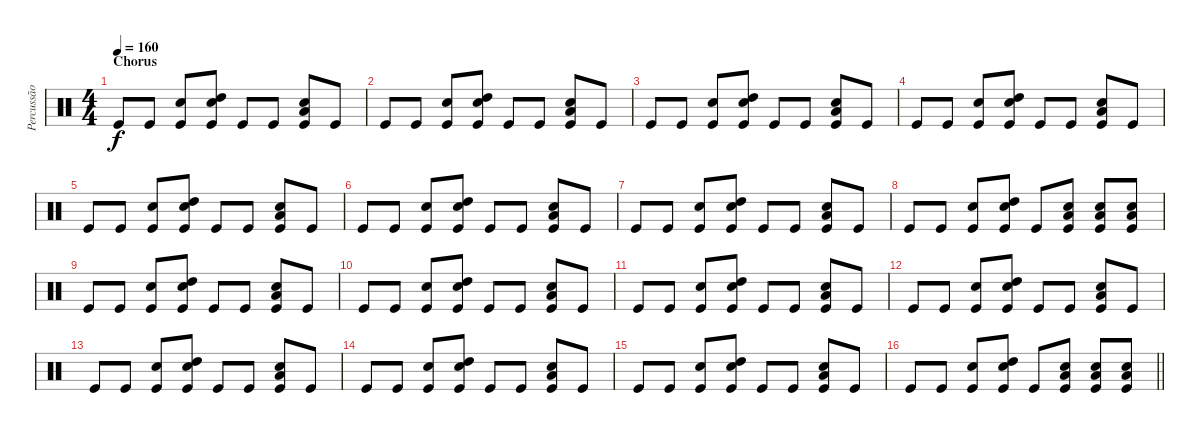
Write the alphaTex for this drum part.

\track ("Percussão" "Percussão") {instrument percussion}
\staff {score}
\articulation defaults
\ts (4 4)
\section ("" "Chorus")
\tempo 160
\clef neutral
\ks c "Kick (hit)".8{dy f} "Kick (hit)".8
("Snare (hit) 2" "Kick (hit)").8 ("Snare (hit) 2" "High Tom (hit)" "Kick (hit)").8 "Kick (hit)".8 "Kick (hit)".8 ("Snare (hit) 2" "Low Tom (hit)" "Kick (hit)").8 "Kick (hit)".8 |
"Kick (hit)".8 "Kick (hit)".8 ("Snare (hit) 2" "Kick (hit)").8 ("Snare (hit) 2" "High Tom (hit)" "Kick (hit)").8 "Kick (hit)".8 "Kick (hit)".8 ("Snare (hit) 2" "Low Tom (hit)" "Kick (hit)").8 "Kick (hit)".8 |
"Kick (hit)".8 "Kick (hit)".8 ("Snare (hit) 2" "Kick (hit)").8 ("Snare (hit) 2" "High Tom (hit)" "Kick (hit)").8 "Kick (hit)".8 "Kick (hit)".8 ("Snare (hit) 2" "Low Tom (hit)" "Kick (hit)").8 "Kick (hit)".8 |
"Kick (hit)".8 "Kick (hit)".8 ("Snare (hit) 2" "Kick (hit)").8 ("Snare (hit) 2" "High Tom (hit)" "Kick (hit)").8 "Kick (hit)".8 "Kick (hit)".8 ("Snare (hit) 2" "Low Tom (hit)" "Kick (hit)").8 "Kick (hit)".8 |
"Kick (hit)".8 "Kick (hit)".8 ("Snare (hit) 2" "Kick (hit)").8 ("Snare (hit) 2" "High Tom (hit)" "Kick (hit)").8 "Kick (hit)".8 "Kick (hit)".8 ("Snare (hit) 2" "Low Tom (hit)" "Kick (hit)").8 "Kick (hit)".8 |
"Kick (hit)".8 "Kick (hit)".8 ("Snare (hit) 2" "Kick (hit)").8 ("Snare (hit) 2" "High Tom (hit)" "Kick (hit)").8 "Kick (hit)".8 "Kick (hit)".8 ("Snare (hit) 2" "Low Tom (hit)" "Kick (hit)").8 "Kick (hit)".8 |
"Kick (hit)".8 "Kick (hit)".8 ("Snare (hit) 2" "Kick (hit)").8 ("Snare (hit) 2" "High Tom (hit)" "Kick (hit)").8 "Kick (hit)".8 "Kick (hit)".8 ("Snare (hit) 2" "Low Tom (hit)" "Kick (hit)").8 "Kick (hit)".8 |
"Kick (hit)".8 "Kick (hit)".8 ("Snare (hit) 2" "Kick (hit)").8 ("Snare (hit) 2" "High Tom (hit)" "Kick (hit)").8 "Kick (hit)".8 ("Snare (hit) 2" "Low Tom (hit)" "Kick (hit)").8 ("Snare (hit) 2" "Low Tom (hit)" "Kick (hit)").8 ("Snare (hit) 2" "Low Tom (hit)" "Kick (hit)").8 |
"Kick (hit)".8 "Kick (hit)".8 ("Snare (hit) 2" "Kick (hit)").8 ("Snare (hit) 2" "High Tom (hit)" "Kick (hit)").8 "Kick (hit)".8 "Kick (hit)".8 ("Snare (hit) 2" "Low Tom (hit)" "Kick (hit)").8 "Kick (hit)".8 |
"Kick (hit)".8 "Kick (hit)".8 ("Snare (hit) 2" "Kick (hit)").8 ("Snare (hit) 2" "High Tom (hit)" "Kick (hit)").8 "Kick (hit)".8 "Kick (hit)".8 ("Snare (hit) 2" "Low Tom (hit)" "Kick (hit)").8 "Kick (hit)".8 |
"Kick (hit)".8 "Kick (hit)".8 ("Snare (hit) 2" "Kick (hit)").8 ("Snare (hit) 2" "High Tom (hit)" "Kick (hit)").8 "Kick (hit)".8 "Kick (hit)".8 ("Snare (hit) 2" "Low Tom (hit)" "Kick (hit)").8 "Kick (hit)".8 |
"Kick (hit)".8 "Kick (hit)".8 ("Snare (hit) 2" "Kick (hit)").8 ("Snare (hit) 2" "High Tom (hit)" "Kick (hit)").8 "Kick (hit)".8 "Kick (hit)".8 ("Snare (hit) 2" "Low Tom (hit)" "Kick (hit)").8 "Kick (hit)".8 |
"Kick (hit)".8 "Kick (hit)".8 ("Snare (hit) 2" "Kick (hit)").8 ("Snare (hit) 2" "High Tom (hit)" "Kick (hit)").8 "Kick (hit)".8 "Kick (hit)".8 ("Snare (hit) 2" "Low Tom (hit)" "Kick (hit)").8 "Kick (hit)".8 |
"Kick (hit)".8 "Kick (hit)".8 ("Snare (hit) 2" "Kick (hit)").8 ("Snare (hit) 2" "High Tom (hit)" "Kick (hit)").8 "Kick (hit)".8 "Kick (hit)".8 ("Snare (hit) 2" "Low Tom (hit)" "Kick (hit)").8 "Kick (hit)".8 |
"Kick (hit)".8 "Kick (hit)".8 ("Snare (hit) 2" "Kick (hit)").8 ("Snare (hit) 2" "High Tom (hit)" "Kick (hit)").8 "Kick (hit)".8 "Kick (hit)".8 ("Snare (hit) 2" "Low Tom (hit)" "Kick (hit)").8 "Kick (hit)".8 |
\barLineRight lightlight "Kick (hit)".8 "Kick (hit)".8
("Snare (hit) 2" "Kick (hit)").8 ("Snare (hit) 2" "High Tom (hit)" "Kick (hit)").8 "Kick (hit)".8 ("Snare (hit) 2" "Low Tom (hit)" "Kick (hit)").8 ("Snare (hit) 2" "Low Tom (hit)" "Kick (hit)").8 ("Snare (hit) 2" "Low Tom (hit)" "Kick (hit)").8
